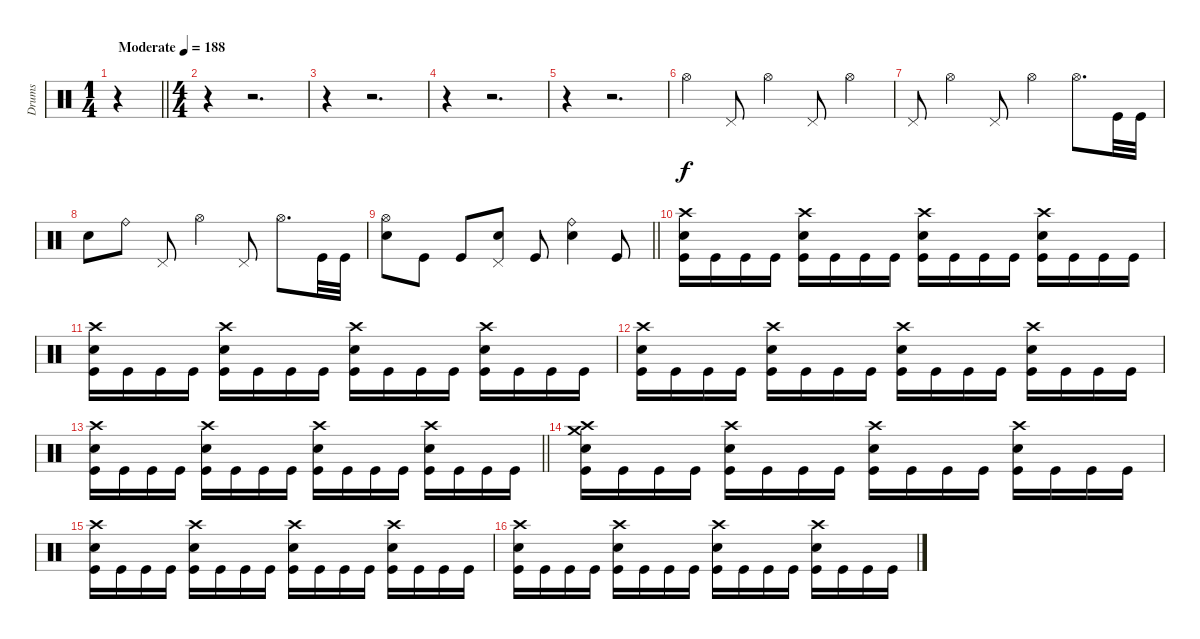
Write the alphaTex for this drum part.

\track ("Drums" "Drums") {instrument percussion}
\staff
\articulation defaults
\voice
\ts (1 4)
\tempo (188 "Moderate")
\clef neutral
\barLineRight lightlight
\ks c
r.4{dy f} |
\ts (4 4)
r.4 r.2{d} |
r.4 r.2{d} |
r.4 r.2{d} |
r.4 r.2{d} |
"Hi-Hat (open)".4 "Pedal Hi-Hat (hit)".8 "Hi-Hat (open)".4 "Pedal Hi-Hat (hit)".8 "Hi-Hat (open)".4 |
"Pedal Hi-Hat (hit)".8 "Hi-Hat (open)".4 "Pedal Hi-Hat (hit)".8 "Hi-Hat (open)".4 "Hi-Hat (open)".8{d} "Kick (hit)".32 "Kick (hit)".32 |
"Electric Snare (hit)".8 "Ride (bell)".8 "Pedal Hi-Hat (hit)".8 "Hi-Hat (open)".4 "Pedal Hi-Hat (hit)".8 "Hi-Hat (open)".8{d} "Kick (hit)".32 "Kick (hit)".32 |
\barLineRight lightlight
("Hi-Hat (open)" "Electric Snare (hit)").8 "Kick (hit)".8 "Kick (hit)".8 ("Pedal Hi-Hat (hit)" "Electric Snare (hit)").8 "Kick (hit)".8 ("Ride (bell)" "Electric Snare (hit)").4 "Kick (hit)".8 |
\section ("" "")
("Crash high (hit)" "Electric Snare (hit)" "Kick (hit)").16 "Kick (hit)".16 "Kick (hit)".16 "Kick (hit)".16 ("Crash high (hit)" "Electric Snare (hit)" "Kick (hit)").16 "Kick (hit)".16 "Kick (hit)".16 "Kick (hit)".16 ("Crash high (hit)" "Electric Snare (hit)" "Kick (hit)").16 "Kick (hit)".16 "Kick (hit)".16 "Kick (hit)".16 ("Crash high (hit)" "Electric Snare (hit)" "Kick (hit)").16 "Kick (hit)".16 "Kick (hit)".16 "Kick (hit)".16 |
("Crash high (hit)" "Electric Snare (hit)" "Kick (hit)").16 "Kick (hit)".16 "Kick (hit)".16 "Kick (hit)".16 ("Crash high (hit)" "Electric Snare (hit)" "Kick (hit)").16 "Kick (hit)".16 "Kick (hit)".16 "Kick (hit)".16 ("Crash high (hit)" "Electric Snare (hit)" "Kick (hit)").16 "Kick (hit)".16 "Kick (hit)".16 "Kick (hit)".16 ("Crash high (hit)" "Electric Snare (hit)" "Kick (hit)").16 "Kick (hit)".16 "Kick (hit)".16 "Kick (hit)".16 |
("Crash high (hit)" "Electric Snare (hit)" "Kick (hit)").16 "Kick (hit)".16 "Kick (hit)".16 "Kick (hit)".16 ("Crash high (hit)" "Electric Snare (hit)" "Kick (hit)").16 "Kick (hit)".16 "Kick (hit)".16 "Kick (hit)".16 ("Crash high (hit)" "Electric Snare (hit)" "Kick (hit)").16 "Kick (hit)".16 "Kick (hit)".16 "Kick (hit)".16 ("Crash high (hit)" "Electric Snare (hit)" "Kick (hit)").16 "Kick (hit)".16 "Kick (hit)".16 "Kick (hit)".16 |
\barLineRight lightlight
("Crash high (hit)" "Electric Snare (hit)" "Kick (hit)").16 "Kick (hit)".16 "Kick (hit)".16 "Kick (hit)".16 ("Crash high (hit)" "Electric Snare (hit)" "Kick (hit)").16 "Kick (hit)".16 "Kick (hit)".16 "Kick (hit)".16 ("Crash high (hit)" "Electric Snare (hit)" "Kick (hit)").16 "Kick (hit)".16 "Kick (hit)".16 "Kick (hit)".16 ("Crash high (hit)" "Electric Snare (hit)" "Kick (hit)").16 "Kick (hit)".16 "Kick (hit)".16 "Kick (hit)".16 |
("Crash medium (hit)" "Crash high (hit)" "Electric Snare (hit)" "Kick (hit)").16 "Kick (hit)".16 "Kick (hit)".16 "Kick (hit)".16 ("Crash high (hit)" "Electric Snare (hit)" "Kick (hit)").16 "Kick (hit)".16 "Kick (hit)".16 "Kick (hit)".16 ("Crash high (hit)" "Electric Snare (hit)" "Kick (hit)").16 "Kick (hit)".16 "Kick (hit)".16 "Kick (hit)".16 ("Crash high (hit)" "Electric Snare (hit)" "Kick (hit)").16 "Kick (hit)".16 "Kick (hit)".16 "Kick (hit)".16 |
("Crash high (hit)" "Electric Snare (hit)" "Kick (hit)").16 "Kick (hit)".16 "Kick (hit)".16 "Kick (hit)".16 ("Crash high (hit)" "Electric Snare (hit)" "Kick (hit)").16 "Kick (hit)".16 "Kick (hit)".16 "Kick (hit)".16 ("Crash high (hit)" "Electric Snare (hit)" "Kick (hit)").16 "Kick (hit)".16 "Kick (hit)".16 "Kick (hit)".16 ("Crash high (hit)" "Electric Snare (hit)" "Kick (hit)").16 "Kick (hit)".16 "Kick (hit)".16 "Kick (hit)".16 |
("Crash high (hit)" "Electric Snare (hit)" "Kick (hit)").16 "Kick (hit)".16 "Kick (hit)".16 "Kick (hit)".16 ("Crash high (hit)" "Electric Snare (hit)" "Kick (hit)").16 "Kick (hit)".16 "Kick (hit)".16 "Kick (hit)".16 ("Crash high (hit)" "Electric Snare (hit)" "Kick (hit)").16 "Kick (hit)".16 "Kick (hit)".16 "Kick (hit)".16 ("Crash high (hit)" "Electric Snare (hit)" "Kick (hit)").16 "Kick (hit)".16 "Kick (hit)".16 "Kick (hit)".16
\voice
\clef neutral
\ottava regular
\simile none
\barLineRight lightlight
\ks c
r.4{dy f} |
|
|
|
|
|
|
|
\barLineRight lightlight
|
|
|
|
\barLineRight lightlight
|
|
|
